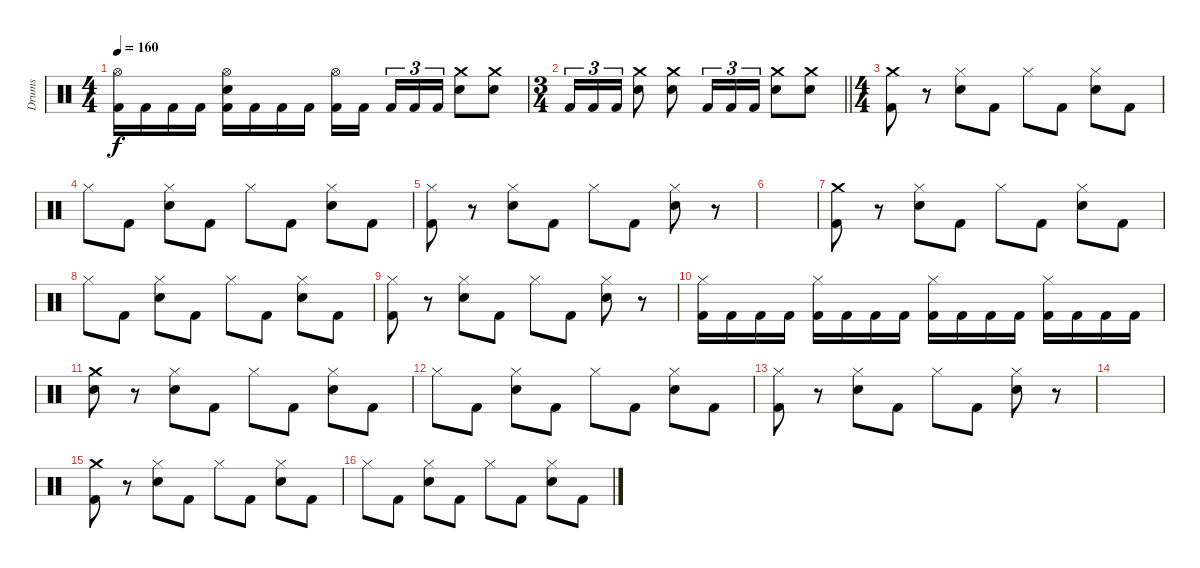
\track ("Drums" "Drums") {instrument percussion}
\staff {score}
\articulation defaults
\ts (4 4)
\tempo 160
\clef neutral
\ks c
("Hi-Hat (open)" "Kick (hit) 2").16{dy f} "Kick (hit) 2".16 "Kick (hit) 2".16 "Kick (hit) 2".16 ("Hi-Hat (open)" "Electric Snare (hit)" "Kick (hit) 2").16 "Kick (hit) 2".16 "Kick (hit) 2".16 "Kick (hit) 2".16 ("Hi-Hat (open)" "Kick (hit) 2").16 "Kick (hit) 2".16{beam splitsecondary} "Kick (hit) 2".16{tu (3 2)} "Kick (hit) 2".16{tu (3 2)} "Kick (hit) 2".16{tu (3 2)} ("Crash medium (hit)" "Electric Snare (hit)").8 ("Crash medium (hit)" "Electric Snare (hit)").8 |
\ts (3 4)
\barLineRight lightlight "Kick (hit) 2".16{tu (3 2)} "Kick (hit) 2".16{tu (3 2)} "Kick (hit) 2".16{tu (3 2)}
("Crash medium (hit)" "Electric Snare (hit)").8 ("Crash medium (hit)" "Electric Snare (hit)").8 "Kick (hit) 2".16{tu (3 2)} "Kick (hit) 2".16{tu (3 2)} "Kick (hit) 2".16{tu (3 2)} ("Crash medium (hit)" "Electric Snare (hit)").8 ("Crash medium (hit)" "Electric Snare (hit)").8 |
\ts (4 4)
\section ("" "")
("Crash medium (hit)" "Kick (hit) 2").8 r.8 ("Hi-Hat (closed)" "Electric Snare (hit)").8 "Kick (hit) 2".8 "Hi-Hat (closed)".8 "Kick (hit) 2".8 ("Hi-Hat (closed)" "Electric Snare (hit)").8 "Kick (hit) 2".8 |
"Hi-Hat (closed)".8 "Kick (hit) 2".8 ("Hi-Hat (closed)" "Electric Snare (hit)").8 "Kick (hit) 2".8 "Hi-Hat (closed)".8 "Kick (hit) 2".8 ("Hi-Hat (closed)" "Electric Snare (hit)").8 "Kick (hit) 2".8 |
("Hi-Hat (closed)" "Kick (hit) 2").8 r.8 ("Hi-Hat (closed)" "Electric Snare (hit)").8 "Kick (hit) 2".8 "Hi-Hat (closed)".8 "Kick (hit) 2".8 ("Hi-Hat (closed)" "Electric Snare (hit)").8 r.8 |
|
("Crash medium (hit)" "Kick (hit) 2").8 r.8 ("Hi-Hat (closed)" "Electric Snare (hit)").8 "Kick (hit) 2".8 "Hi-Hat (closed)".8 "Kick (hit) 2".8 ("Hi-Hat (closed)" "Electric Snare (hit)").8 "Kick (hit) 2".8 |
"Hi-Hat (closed)".8 "Kick (hit) 2".8 ("Hi-Hat (closed)" "Electric Snare (hit)").8 "Kick (hit) 2".8 "Hi-Hat (closed)".8 "Kick (hit) 2".8 ("Hi-Hat (closed)" "Electric Snare (hit)").8 "Kick (hit) 2".8 |
("Hi-Hat (closed)" "Kick (hit) 2").8 r.8 ("Hi-Hat (closed)" "Electric Snare (hit)").8 "Kick (hit) 2".8 "Hi-Hat (closed)".8 "Kick (hit) 2".8 ("Hi-Hat (closed)" "Electric Snare (hit)").8 r.8 |
("Hi-Hat (closed)" "Kick (hit) 2").16 "Kick (hit) 2".16 "Kick (hit) 2".16 "Kick (hit) 2".16 ("Hi-Hat (closed)" "Kick (hit) 2").16 "Kick (hit) 2".16 "Kick (hit) 2".16 "Kick (hit) 2".16 ("Hi-Hat (closed)" "Kick (hit) 2").16 "Kick (hit) 2".16 "Kick (hit) 2".16 "Kick (hit) 2".16 ("Hi-Hat (closed)" "Kick (hit) 2").16 "Kick (hit) 2".16 "Kick (hit) 2".16 "Kick (hit) 2".16 |
("Crash medium (hit)" "Electric Snare (hit)").8 r.8 ("Hi-Hat (closed)" "Electric Snare (hit)").8 "Kick (hit) 2".8 "Hi-Hat (closed)".8 "Kick (hit) 2".8 ("Hi-Hat (closed)" "Electric Snare (hit)").8 "Kick (hit) 2".8 |
"Hi-Hat (closed)".8 "Kick (hit) 2".8 ("Hi-Hat (closed)" "Electric Snare (hit)").8 "Kick (hit) 2".8 "Hi-Hat (closed)".8 "Kick (hit) 2".8 ("Hi-Hat (closed)" "Electric Snare (hit)").8 "Kick (hit) 2".8 |
("Hi-Hat (closed)" "Kick (hit) 2").8 r.8 ("Hi-Hat (closed)" "Electric Snare (hit)").8 "Kick (hit) 2".8 "Hi-Hat (closed)".8 "Kick (hit) 2".8 ("Hi-Hat (closed)" "Electric Snare (hit)").8 r.8 |
|
("Crash medium (hit)" "Kick (hit) 2").8 r.8 ("Hi-Hat (closed)" "Electric Snare (hit)").8 "Kick (hit) 2".8 "Hi-Hat (closed)".8 "Kick (hit) 2".8 ("Hi-Hat (closed)" "Electric Snare (hit)").8 "Kick (hit) 2".8 |
"Hi-Hat (closed)".8 "Kick (hit) 2".8 ("Hi-Hat (closed)" "Electric Snare (hit)").8 "Kick (hit) 2".8 "Hi-Hat (closed)".8 "Kick (hit) 2".8 ("Hi-Hat (closed)" "Electric Snare (hit)").8 "Kick (hit) 2".8
